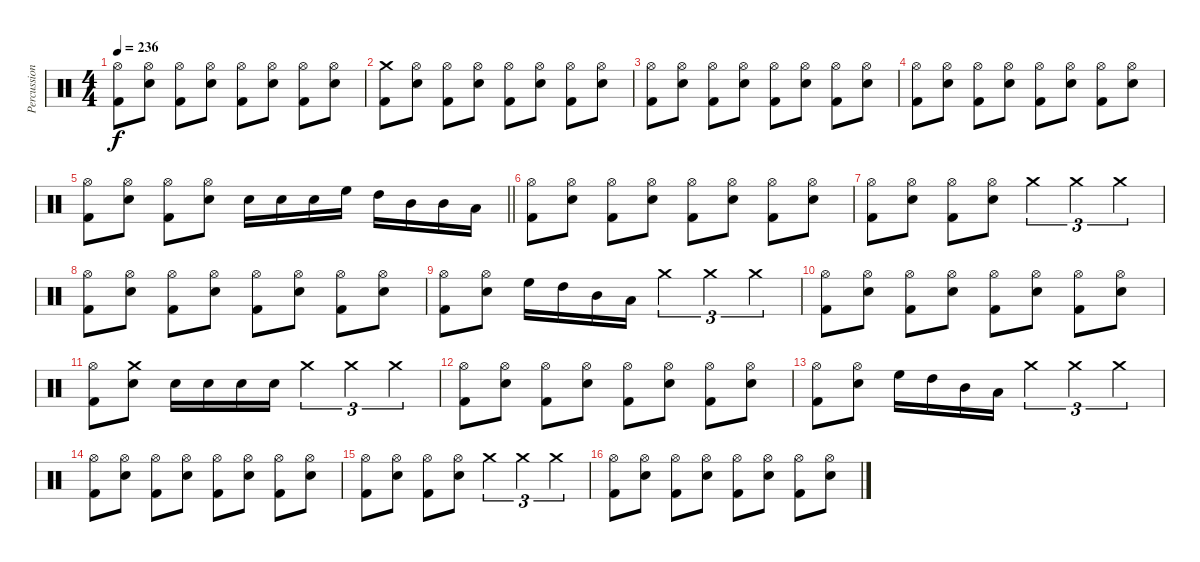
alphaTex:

\track ("Percussion" "Percussion") {instrument percussion}
\staff {score}
\articulation defaults
\ts (4 4)
\tempo 236
\clef neutral
\ks c
("Hi-Hat (open)" "Kick (hit) 2").8{dy f} ("Hi-Hat (open)" "Snare (hit) 2").8 ("Hi-Hat (open)" "Kick (hit) 2").8 ("Hi-Hat (open)" "Snare (hit) 2").8 ("Hi-Hat (open)" "Kick (hit) 2").8 ("Hi-Hat (open)" "Snare (hit) 2").8 ("Hi-Hat (open)" "Kick (hit) 2").8 ("Hi-Hat (open)" "Snare (hit) 2").8 |
("Crash medium (hit)" "Kick (hit) 2").8 ("Hi-Hat (open)" "Snare (hit) 2").8 ("Hi-Hat (open)" "Kick (hit) 2").8 ("Hi-Hat (open)" "Snare (hit) 2").8 ("Hi-Hat (open)" "Kick (hit) 2").8 ("Hi-Hat (open)" "Snare (hit) 2").8 ("Hi-Hat (open)" "Kick (hit) 2").8 ("Hi-Hat (open)" "Snare (hit) 2").8 |
("Hi-Hat (open)" "Kick (hit) 2").8 ("Hi-Hat (open)" "Snare (hit) 2").8 ("Hi-Hat (open)" "Kick (hit) 2").8 ("Hi-Hat (open)" "Snare (hit) 2").8 ("Hi-Hat (open)" "Kick (hit) 2").8 ("Hi-Hat (open)" "Snare (hit) 2").8 ("Hi-Hat (open)" "Kick (hit) 2").8 ("Hi-Hat (open)" "Snare (hit) 2").8 |
("Hi-Hat (open)" "Kick (hit) 2").8 ("Hi-Hat (open)" "Snare (hit) 2").8 ("Hi-Hat (open)" "Kick (hit) 2").8 ("Hi-Hat (open)" "Snare (hit) 2").8 ("Hi-Hat (open)" "Kick (hit) 2").8 ("Hi-Hat (open)" "Snare (hit) 2").8 ("Hi-Hat (open)" "Kick (hit) 2").8 ("Hi-Hat (open)" "Snare (hit) 2").8 |
\barLineRight lightlight
("Hi-Hat (open)" "Kick (hit) 2").8 ("Hi-Hat (open)" "Snare (hit) 2").8 ("Hi-Hat (open)" "Kick (hit) 2").8 ("Hi-Hat (open)" "Snare (hit) 2").8 "Snare (hit) 2".16 "Snare (hit) 2".16 "Snare (hit) 2".16 "High Floor Tom (hit)".16 "High Tom (hit)".16 "Mid Tom (hit)".16 "Mid Tom (hit)".16 "Low Tom (hit)".16 |
("Hi-Hat (open)" "Kick (hit) 2").8 ("Hi-Hat (open)" "Snare (hit) 2").8 ("Hi-Hat (open)" "Kick (hit) 2").8 ("Hi-Hat (open)" "Snare (hit) 2").8 ("Hi-Hat (open)" "Kick (hit) 2").8 ("Hi-Hat (open)" "Snare (hit) 2").8 ("Hi-Hat (open)" "Kick (hit) 2").8 ("Hi-Hat (open)" "Snare (hit) 2").8 |
("Hi-Hat (open)" "Kick (hit) 2").8 ("Hi-Hat (open)" "Snare (hit) 2").8 ("Hi-Hat (open)" "Kick (hit) 2").8 ("Hi-Hat (open)" "Snare (hit) 2").8 "Crash medium (hit)".4{tu (3 2)} "Crash medium (hit)".4{tu (3 2)} "Crash medium (hit)".4{tu (3 2)} |
("Hi-Hat (open)" "Kick (hit) 2").8 ("Hi-Hat (open)" "Snare (hit) 2").8 ("Hi-Hat (open)" "Kick (hit) 2").8 ("Hi-Hat (open)" "Snare (hit) 2").8 ("Hi-Hat (open)" "Kick (hit) 2").8 ("Hi-Hat (open)" "Snare (hit) 2").8 ("Hi-Hat (open)" "Kick (hit) 2").8 ("Hi-Hat (open)" "Snare (hit) 2").8 |
("Hi-Hat (open)" "Kick (hit) 2").8 ("Hi-Hat (open)" "Snare (hit) 2").8 "High Floor Tom (hit)".16 "High Tom (hit)".16 "Mid Tom (hit)".16 "Low Tom (hit)".16 "Crash medium (hit)".4{tu (3 2)} "Crash medium (hit)".4{tu (3 2)} "Crash medium (hit)".4{tu (3 2)} |
("Hi-Hat (open)" "Kick (hit) 2").8 ("Hi-Hat (open)" "Snare (hit) 2").8 ("Hi-Hat (open)" "Kick (hit) 2").8 ("Hi-Hat (open)" "Snare (hit) 2").8 ("Hi-Hat (open)" "Kick (hit) 2").8 ("Hi-Hat (open)" "Snare (hit) 2").8 ("Hi-Hat (open)" "Kick (hit) 2").8 ("Hi-Hat (open)" "Snare (hit) 2").8 |
("Hi-Hat (open)" "Kick (hit) 2").8 ("Crash medium (hit)" "Snare (hit) 2").8 "Snare (hit) 2".16 "Snare (hit) 2".16 "Snare (hit) 2".16 "Snare (hit) 2".16 "Crash medium (hit)".4{tu (3 2)} "Crash medium (hit)".4{tu (3 2)} "Crash medium (hit)".4{tu (3 2)} |
("Hi-Hat (open)" "Kick (hit) 2").8 ("Hi-Hat (open)" "Snare (hit) 2").8 ("Hi-Hat (open)" "Kick (hit) 2").8 ("Hi-Hat (open)" "Snare (hit) 2").8 ("Hi-Hat (open)" "Kick (hit) 2").8 ("Hi-Hat (open)" "Snare (hit) 2").8 ("Hi-Hat (open)" "Kick (hit) 2").8 ("Hi-Hat (open)" "Snare (hit) 2").8 |
("Hi-Hat (open)" "Kick (hit) 2").8 ("Hi-Hat (open)" "Snare (hit) 2").8 "High Floor Tom (hit)".16 "High Tom (hit)".16 "Mid Tom (hit)".16 "Low Tom (hit)".16 "Crash medium (hit)".4{tu (3 2)} "Crash medium (hit)".4{tu (3 2)} "Crash medium (hit)".4{tu (3 2)} |
("Hi-Hat (open)" "Kick (hit) 2").8 ("Hi-Hat (open)" "Snare (hit) 2").8 ("Hi-Hat (open)" "Kick (hit) 2").8 ("Hi-Hat (open)" "Snare (hit) 2").8 ("Hi-Hat (open)" "Kick (hit) 2").8 ("Hi-Hat (open)" "Snare (hit) 2").8 ("Hi-Hat (open)" "Kick (hit) 2").8 ("Hi-Hat (open)" "Snare (hit) 2").8 |
("Hi-Hat (open)" "Kick (hit) 2").8 ("Hi-Hat (open)" "Snare (hit) 2").8 ("Hi-Hat (open)" "Kick (hit) 2").8 ("Hi-Hat (open)" "Snare (hit) 2").8 "Crash medium (hit)".4{tu (3 2)} "Crash medium (hit)".4{tu (3 2)} "Crash medium (hit)".4{tu (3 2)} |
("Hi-Hat (open)" "Kick (hit) 2").8 ("Hi-Hat (open)" "Snare (hit) 2").8 ("Hi-Hat (open)" "Kick (hit) 2").8 ("Hi-Hat (open)" "Snare (hit) 2").8 ("Hi-Hat (open)" "Kick (hit) 2").8 ("Hi-Hat (open)" "Snare (hit) 2").8 ("Hi-Hat (open)" "Kick (hit) 2").8 ("Hi-Hat (open)" "Snare (hit) 2").8
